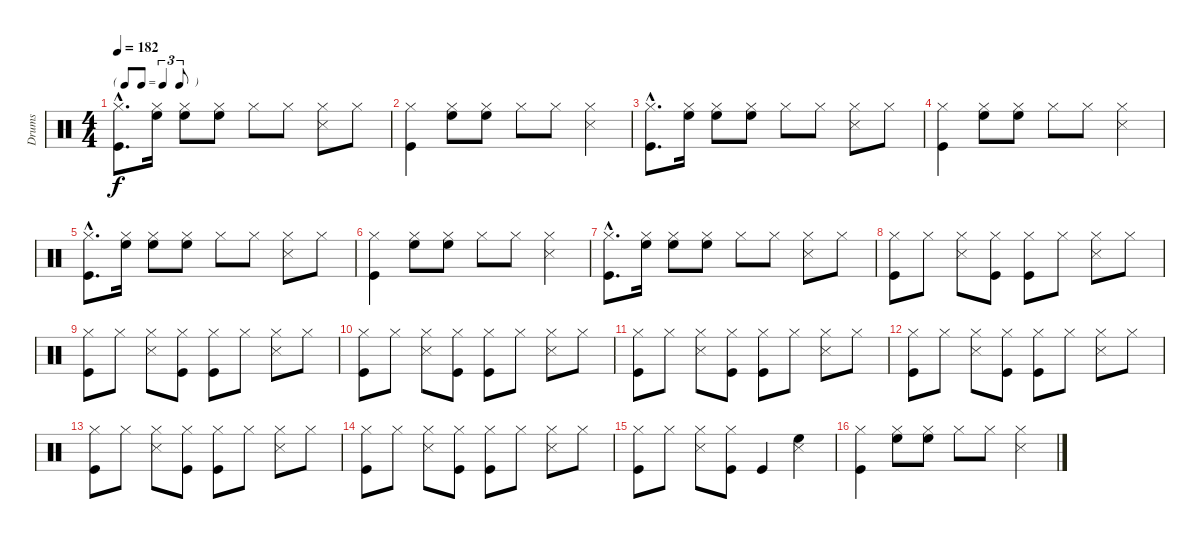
\track ("Drums" "Drums") {instrument percussion}
\staff {score}
\articulation defaults
\ts (4 4)
\tf triplet8th
\tempo 182
\clef neutral
\ks c
("Hi-Hat (closed)"{hac} "Kick (hit)"{hac}).8{d dy f} ("Hi-Hat (closed)" "High Floor Tom (hit)").16 ("Hi-Hat (closed)" "High Floor Tom (hit)").8 ("Hi-Hat (closed)" "High Floor Tom (hit)").8 "Hi-Hat (closed)".8 "Hi-Hat (closed)".8 ("Hi-Hat (closed)" "Snare (side stick) 3").8 "Hi-Hat (closed)".8 |
("Hi-Hat (closed)" "Kick (hit)").4 ("Hi-Hat (closed)" "High Floor Tom (hit)").8 ("Hi-Hat (closed)" "High Floor Tom (hit)").8 "Hi-Hat (closed)".8 "Hi-Hat (closed)".8 ("Hi-Hat (closed)" "Snare (side stick) 3").4 |
("Hi-Hat (closed)"{hac} "Kick (hit)"{hac}).8{d} ("Hi-Hat (closed)" "High Floor Tom (hit)").16 ("Hi-Hat (closed)" "High Floor Tom (hit)").8 ("Hi-Hat (closed)" "High Floor Tom (hit)").8 "Hi-Hat (closed)".8 "Hi-Hat (closed)".8 ("Hi-Hat (closed)" "Snare (side stick) 3").8 "Hi-Hat (closed)".8 |
("Hi-Hat (closed)" "Kick (hit)").4 ("Hi-Hat (closed)" "High Floor Tom (hit)").8 ("Hi-Hat (closed)" "High Floor Tom (hit)").8 "Hi-Hat (closed)".8 "Hi-Hat (closed)".8 ("Hi-Hat (closed)" "Snare (side stick) 3").4 |
("Hi-Hat (closed)"{hac} "Kick (hit)"{hac}).8{d} ("Hi-Hat (closed)" "High Floor Tom (hit)").16 ("Hi-Hat (closed)" "High Floor Tom (hit)").8 ("Hi-Hat (closed)" "High Floor Tom (hit)").8 "Hi-Hat (closed)".8 "Hi-Hat (closed)".8 ("Hi-Hat (closed)" "Snare (side stick) 3").8 "Hi-Hat (closed)".8 |
("Hi-Hat (closed)" "Kick (hit)").4 ("Hi-Hat (closed)" "High Floor Tom (hit)").8 ("Hi-Hat (closed)" "High Floor Tom (hit)").8 "Hi-Hat (closed)".8 "Hi-Hat (closed)".8 ("Hi-Hat (closed)" "Snare (side stick) 3").4 |
("Hi-Hat (closed)"{hac} "Kick (hit)"{hac}).8{d} ("Hi-Hat (closed)" "High Floor Tom (hit)").16 ("Hi-Hat (closed)" "High Floor Tom (hit)").8 ("Hi-Hat (closed)" "High Floor Tom (hit)").8 "Hi-Hat (closed)".8 "Hi-Hat (closed)".8 ("Hi-Hat (closed)" "Snare (side stick) 3").8 "Hi-Hat (closed)".8 |
("Hi-Hat (closed)" "Kick (hit)").8 "Hi-Hat (closed)".8 ("Hi-Hat (closed)" "Snare (side stick) 3").8 ("Hi-Hat (closed)" "Kick (hit)").8 ("Hi-Hat (closed)" "Kick (hit)").8 "Hi-Hat (closed)".8 ("Hi-Hat (closed)" "Snare (side stick) 3").8 "Hi-Hat (closed)".8 |
("Hi-Hat (closed)" "Kick (hit)").8 "Hi-Hat (closed)".8 ("Hi-Hat (closed)" "Snare (side stick) 3").8 ("Hi-Hat (closed)" "Kick (hit)").8 ("Hi-Hat (closed)" "Kick (hit)").8 "Hi-Hat (closed)".8 ("Hi-Hat (closed)" "Snare (side stick) 3").8 "Hi-Hat (closed)".8 |
("Hi-Hat (closed)" "Kick (hit)").8 "Hi-Hat (closed)".8 ("Hi-Hat (closed)" "Snare (side stick) 3").8 ("Hi-Hat (closed)" "Kick (hit)").8 ("Hi-Hat (closed)" "Kick (hit)").8 "Hi-Hat (closed)".8 ("Hi-Hat (closed)" "Snare (side stick) 3").8 "Hi-Hat (closed)".8 |
("Hi-Hat (closed)" "Kick (hit)").8 "Hi-Hat (closed)".8 ("Hi-Hat (closed)" "Snare (side stick) 3").8 ("Hi-Hat (closed)" "Kick (hit)").8 ("Hi-Hat (closed)" "Kick (hit)").8 "Hi-Hat (closed)".8 ("Hi-Hat (closed)" "Snare (side stick) 3").8 "Hi-Hat (closed)".8 |
("Hi-Hat (closed)" "Kick (hit)").8 "Hi-Hat (closed)".8 ("Hi-Hat (closed)" "Snare (side stick) 3").8 ("Hi-Hat (closed)" "Kick (hit)").8 ("Hi-Hat (closed)" "Kick (hit)").8 "Hi-Hat (closed)".8 ("Hi-Hat (closed)" "Snare (side stick) 3").8 "Hi-Hat (closed)".8 |
("Hi-Hat (closed)" "Kick (hit)").8 "Hi-Hat (closed)".8 ("Hi-Hat (closed)" "Snare (side stick) 3").8 ("Hi-Hat (closed)" "Kick (hit)").8 ("Hi-Hat (closed)" "Kick (hit)").8 "Hi-Hat (closed)".8 ("Hi-Hat (closed)" "Snare (side stick) 3").8 "Hi-Hat (closed)".8 |
("Hi-Hat (closed)" "Kick (hit)").8 "Hi-Hat (closed)".8 ("Hi-Hat (closed)" "Snare (side stick) 3").8 ("Hi-Hat (closed)" "Kick (hit)").8 ("Hi-Hat (closed)" "Kick (hit)").8 "Hi-Hat (closed)".8 ("Hi-Hat (closed)" "Snare (side stick) 3").8 "Hi-Hat (closed)".8 |
("Hi-Hat (closed)" "Kick (hit)").8 "Hi-Hat (closed)".8 ("Hi-Hat (closed)" "Snare (side stick) 3").8 ("Hi-Hat (closed)" "Kick (hit)").8 "Kick (hit)".4 ("High Floor Tom (hit)" "Snare (side stick) 3").4 |
("Hi-Hat (closed)" "Kick (hit)").4 ("Hi-Hat (closed)" "High Floor Tom (hit)").8 ("Hi-Hat (closed)" "High Floor Tom (hit)").8 "Hi-Hat (closed)".8 "Hi-Hat (closed)".8 ("Hi-Hat (closed)" "Snare (side stick) 3").4
